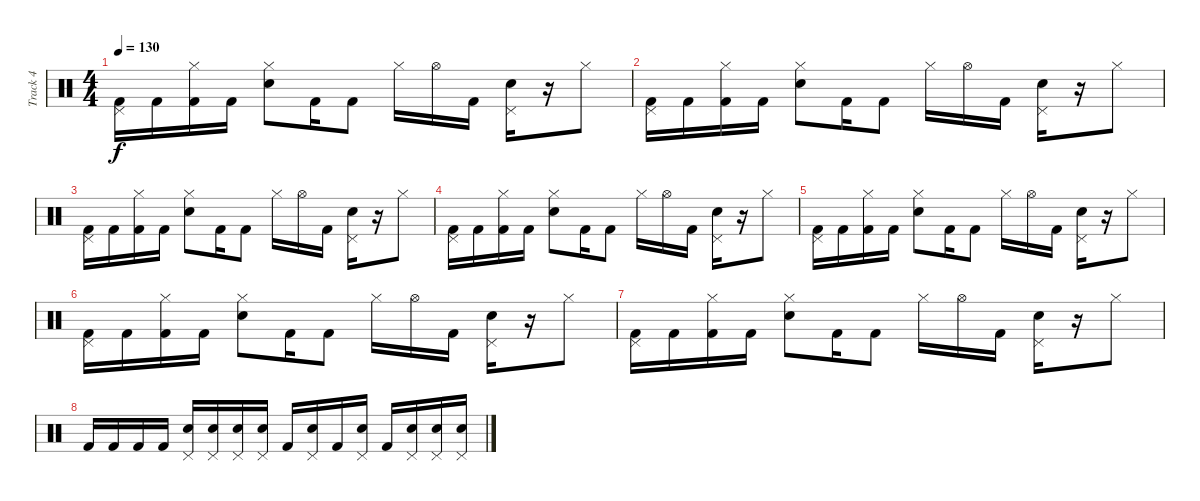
\track ("Track 4" "Track 4") {instrument percussion}
\staff {score}
\articulation defaults
\ts (4 4)
\tempo 130
\clef neutral
\ks c
("Pedal Hi-Hat (hit)" "Kick (hit) 2").16{dy f} "Kick (hit) 2".16 ("Hi-Hat (closed)" "Kick (hit) 2").16 "Kick (hit) 2".16 ("Hi-Hat (closed)" "Electric Snare (hit)").8 "Kick (hit) 2".16 "Kick (hit) 2".8 "Hi-Hat (closed)".16 "Hi-Hat (open)".16 "Kick (hit) 2".16 ("Pedal Hi-Hat (hit)" "Electric Snare (hit)").16 r.16 "Hi-Hat (closed)".8 |
("Pedal Hi-Hat (hit)" "Kick (hit) 2").16 "Kick (hit) 2".16 ("Hi-Hat (closed)" "Kick (hit) 2").16 "Kick (hit) 2".16 ("Hi-Hat (closed)" "Electric Snare (hit)").8 "Kick (hit) 2".16 "Kick (hit) 2".8 "Hi-Hat (closed)".16 "Hi-Hat (open)".16 "Kick (hit) 2".16 ("Pedal Hi-Hat (hit)" "Electric Snare (hit)").16 r.16 "Hi-Hat (closed)".8 |
("Pedal Hi-Hat (hit)" "Kick (hit) 2").16 "Kick (hit) 2".16 ("Hi-Hat (closed)" "Kick (hit) 2").16 "Kick (hit) 2".16 ("Hi-Hat (closed)" "Electric Snare (hit)").8 "Kick (hit) 2".16 "Kick (hit) 2".8 "Hi-Hat (closed)".16 "Hi-Hat (open)".16 "Kick (hit) 2".16 ("Pedal Hi-Hat (hit)" "Electric Snare (hit)").16 r.16 "Hi-Hat (closed)".8 |
("Pedal Hi-Hat (hit)" "Kick (hit) 2").16 "Kick (hit) 2".16 ("Hi-Hat (closed)" "Kick (hit) 2").16 "Kick (hit) 2".16 ("Hi-Hat (closed)" "Electric Snare (hit)").8 "Kick (hit) 2".16 "Kick (hit) 2".8 "Hi-Hat (closed)".16 "Hi-Hat (open)".16 "Kick (hit) 2".16 ("Pedal Hi-Hat (hit)" "Electric Snare (hit)").16 r.16 "Hi-Hat (closed)".8 |
("Pedal Hi-Hat (hit)" "Kick (hit) 2").16 "Kick (hit) 2".16 ("Hi-Hat (closed)" "Kick (hit) 2").16 "Kick (hit) 2".16 ("Hi-Hat (closed)" "Electric Snare (hit)").8 "Kick (hit) 2".16 "Kick (hit) 2".8 "Hi-Hat (closed)".16 "Hi-Hat (open)".16 "Kick (hit) 2".16 ("Pedal Hi-Hat (hit)" "Electric Snare (hit)").16 r.16 "Hi-Hat (closed)".8 |
("Pedal Hi-Hat (hit)" "Kick (hit) 2").16 "Kick (hit) 2".16 ("Hi-Hat (closed)" "Kick (hit) 2").16 "Kick (hit) 2".16 ("Hi-Hat (closed)" "Electric Snare (hit)").8 "Kick (hit) 2".16 "Kick (hit) 2".8 "Hi-Hat (closed)".16 "Hi-Hat (open)".16 "Kick (hit) 2".16 ("Pedal Hi-Hat (hit)" "Electric Snare (hit)").16 r.16 "Hi-Hat (closed)".8 |
("Pedal Hi-Hat (hit)" "Kick (hit) 2").16 "Kick (hit) 2".16 ("Hi-Hat (closed)" "Kick (hit) 2").16 "Kick (hit) 2".16 ("Hi-Hat (closed)" "Electric Snare (hit)").8 "Kick (hit) 2".16 "Kick (hit) 2".8 "Hi-Hat (closed)".16 "Hi-Hat (open)".16 "Kick (hit) 2".16 ("Pedal Hi-Hat (hit)" "Electric Snare (hit)").16 r.16 "Hi-Hat (closed)".8 |
"Kick (hit) 2".16 "Kick (hit) 2".16 "Kick (hit) 2".16 "Kick (hit) 2".16 ("Pedal Hi-Hat (hit)" "Electric Snare (hit)").16 ("Pedal Hi-Hat (hit)" "Electric Snare (hit)").16 ("Pedal Hi-Hat (hit)" "Electric Snare (hit)").16 ("Pedal Hi-Hat (hit)" "Electric Snare (hit)").16 "Kick (hit) 2".16 ("Pedal Hi-Hat (hit)" "Electric Snare (hit)").16 "Kick (hit) 2".16 ("Pedal Hi-Hat (hit)" "Electric Snare (hit)").16 "Kick (hit) 2".16 ("Pedal Hi-Hat (hit)" "Electric Snare (hit)").16 ("Pedal Hi-Hat (hit)" "Electric Snare (hit)").16 ("Pedal Hi-Hat (hit)" "Electric Snare (hit)").16
